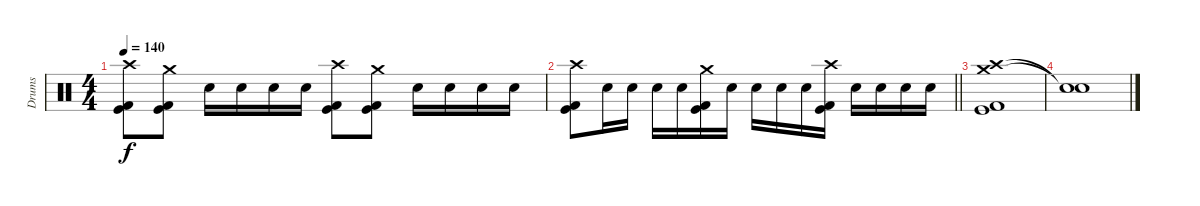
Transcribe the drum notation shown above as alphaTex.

\track ("Drums" "Drums") {instrument percussion}
\staff {score}
\articulation defaults
\ts (4 4)
\tempo 140
\clef neutral
\ks c
("Crash high (hit)" "Kick (hit)" "Kick (hit) 2").8{dy f} ("Crash medium (hit)" "Kick (hit)" "Kick (hit) 2").8 "Electric Snare (hit)".16 "Electric Snare (hit)".16 "Electric Snare (hit)".16 "Electric Snare (hit)".16 ("Crash high (hit)" "Kick (hit)" "Kick (hit) 2").8 ("Crash medium (hit)" "Kick (hit)" "Kick (hit) 2").8 "Electric Snare (hit)".16 "Electric Snare (hit)".16 "Electric Snare (hit)".16 "Electric Snare (hit)".16 |
\barLineRight lightlight
("Crash high (hit)" "Kick (hit)" "Kick (hit) 2").8 "Electric Snare (hit)".16 "Electric Snare (hit)".16 "Electric Snare (hit)".16 "Electric Snare (hit)".16 ("Crash medium (hit)" "Kick (hit)" "Kick (hit) 2").16 "Electric Snare (hit)".16 "Electric Snare (hit)".16 "Electric Snare (hit)".16 "Electric Snare (hit)".16 ("Crash high (hit)" "Kick (hit)" "Kick (hit) 2").16 "Electric Snare (hit)".16 "Electric Snare (hit)".16 "Electric Snare (hit)".16 "Electric Snare (hit)".16 |
("Crash high (hit)" "Crash medium (hit)" "Kick (hit)" "Kick (hit) 2").1 |
("Snare (hit)"{t} "Snare (hit)"{t}).1
